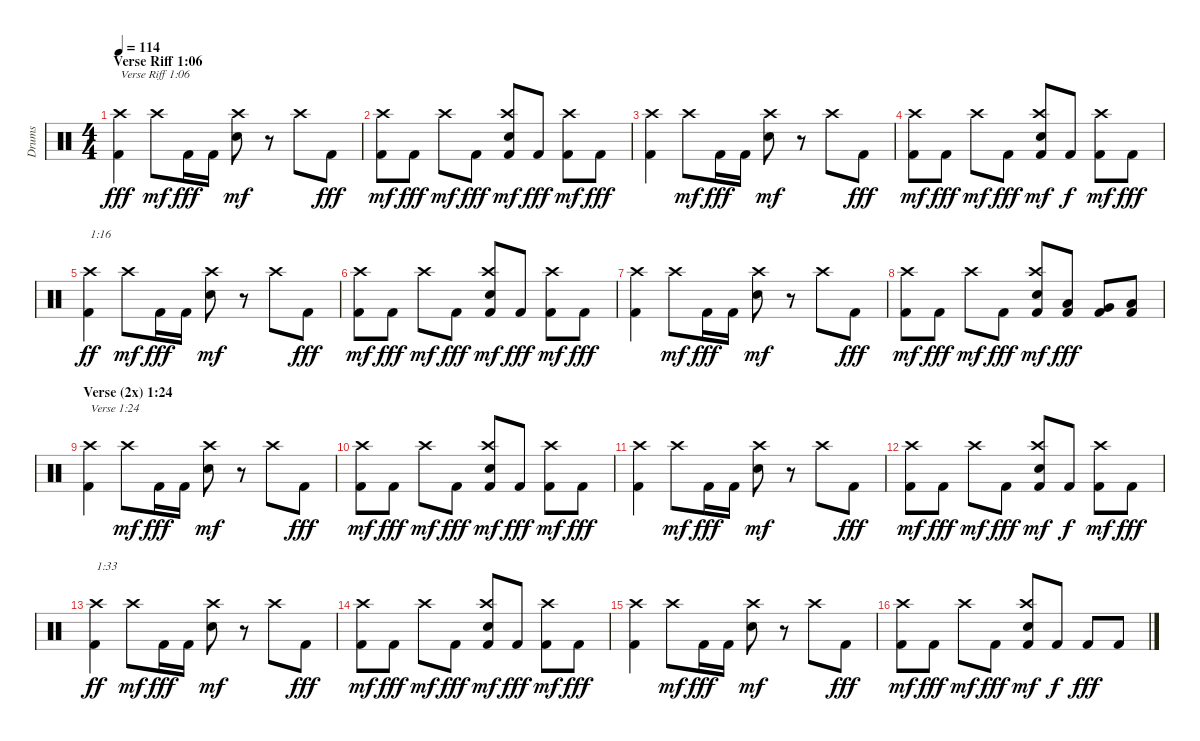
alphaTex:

\track ("Drums" "Drums") {instrument percussion}
\staff {score}
\articulation defaults
\ts (4 4)
\section ("" "Verse Riff 1:06 ")
\tempo 114
\clef neutral
\ks c
("Kick (hit) 2" "Crash high (hit)").4{txt "Verse Riff 1:06" dy fff} "Crash high (hit)".8{dy mf} "Kick (hit) 2".16{dy fff} "Kick (hit) 2".16 ("Electric Snare (hit)" "Crash high (hit)").8{dy mf} r.8 "Crash high (hit)".8 "Kick (hit) 2".8{dy fff} |
("Kick (hit) 2" "Crash high (hit)").8{dy mf} "Kick (hit) 2".8{dy fff} "Crash high (hit)".8{dy mf} "Kick (hit) 2".8{dy fff} ("Kick (hit) 2" "Electric Snare (hit)" "Crash high (hit)").8{dy mf} "Kick (hit) 2".8{dy fff} ("Kick (hit) 2" "Crash high (hit)").8{dy mf} "Kick (hit) 2".8{dy fff} |
("Kick (hit) 2" "Crash high (hit)").4 "Crash high (hit)".8{dy mf} "Kick (hit) 2".16{dy fff} "Kick (hit) 2".16 ("Electric Snare (hit)" "Crash high (hit)").8{dy mf} r.8 "Crash high (hit)".8 "Kick (hit) 2".8{dy fff} |
("Kick (hit) 2" "Crash high (hit)").8{dy mf} "Kick (hit) 2".8{dy fff} "Crash high (hit)".8{dy mf} "Kick (hit) 2".8{dy fff} ("Kick (hit) 2" "Electric Snare (hit)" "Crash high (hit)").8{dy mf} "Kick (hit) 2".8{dy f} ("Kick (hit) 2" "Crash high (hit)").8{dy mf} "Kick (hit) 2".8{dy fff} |
("Kick (hit) 2" "Crash high (hit)").4{txt "1:16" dy ff} "Crash high (hit)".8{dy mf} "Kick (hit) 2".16{dy fff} "Kick (hit) 2".16 ("Electric Snare (hit)" "Crash high (hit)").8{dy mf} r.8 "Crash high (hit)".8 "Kick (hit) 2".8{dy fff} |
("Kick (hit) 2" "Crash high (hit)").8{dy mf} "Kick (hit) 2".8{dy fff} "Crash high (hit)".8{dy mf} "Kick (hit) 2".8{dy fff} ("Kick (hit) 2" "Electric Snare (hit)" "Crash high (hit)").8{dy mf} "Kick (hit) 2".8{dy fff} ("Kick (hit) 2" "Crash high (hit)").8{dy mf} "Kick (hit) 2".8{dy fff} |
("Kick (hit) 2" "Crash high (hit)").4 "Crash high (hit)".8{dy mf} "Kick (hit) 2".16{dy fff} "Kick (hit) 2".16 ("Electric Snare (hit)" "Crash high (hit)").8{dy mf} r.8 "Crash high (hit)".8 "Kick (hit) 2".8{dy fff} |
("Kick (hit) 2" "Crash high (hit)").8{dy mf} "Kick (hit) 2".8{dy fff} "Crash high (hit)".8{dy mf} "Kick (hit) 2".8{dy fff} ("Kick (hit) 2" "Electric Snare (hit)" "Crash high (hit)").8{dy mf} ("Kick (hit) 2" "Low Tom (hit)").8{dy fff} ("Kick (hit) 2" "Very Low Tom (hit)").8 ("Kick (hit) 2" "Low Floor Tom (hit)").8 |
\section ("" "Verse (2x) 1:24")
("Kick (hit) 2" "Crash high (hit)").4{txt "Verse 1:24"} "Crash high (hit)".8{dy mf} "Kick (hit) 2".16{dy fff} "Kick (hit) 2".16 ("Electric Snare (hit)" "Crash high (hit)").8{dy mf} r.8 "Crash high (hit)".8 "Kick (hit) 2".8{dy fff} |
("Kick (hit) 2" "Crash high (hit)").8{dy mf} "Kick (hit) 2".8{dy fff} "Crash high (hit)".8{dy mf} "Kick (hit) 2".8{dy fff} ("Kick (hit) 2" "Electric Snare (hit)" "Crash high (hit)").8{dy mf} "Kick (hit) 2".8{dy fff} ("Kick (hit) 2" "Crash high (hit)").8{dy mf} "Kick (hit) 2".8{dy fff} |
("Kick (hit) 2" "Crash high (hit)").4 "Crash high (hit)".8{dy mf} "Kick (hit) 2".16{dy fff} "Kick (hit) 2".16 ("Electric Snare (hit)" "Crash high (hit)").8{dy mf} r.8 "Crash high (hit)".8 "Kick (hit) 2".8{dy fff} |
("Kick (hit) 2" "Crash high (hit)").8{dy mf} "Kick (hit) 2".8{dy fff} "Crash high (hit)".8{dy mf} "Kick (hit) 2".8{dy fff} ("Kick (hit) 2" "Electric Snare (hit)" "Crash high (hit)").8{dy mf} "Kick (hit) 2".8{dy f} ("Kick (hit) 2" "Crash high (hit)").8{dy mf} "Kick (hit) 2".8{dy fff} |
("Kick (hit) 2" "Crash high (hit)").4{txt "1:33" dy ff} "Crash high (hit)".8{dy mf} "Kick (hit) 2".16{dy fff} "Kick (hit) 2".16 ("Electric Snare (hit)" "Crash high (hit)").8{dy mf} r.8 "Crash high (hit)".8 "Kick (hit) 2".8{dy fff} |
("Kick (hit) 2" "Crash high (hit)").8{dy mf} "Kick (hit) 2".8{dy fff} "Crash high (hit)".8{dy mf} "Kick (hit) 2".8{dy fff} ("Kick (hit) 2" "Electric Snare (hit)" "Crash high (hit)").8{dy mf} "Kick (hit) 2".8{dy fff} ("Kick (hit) 2" "Crash high (hit)").8{dy mf} "Kick (hit) 2".8{dy fff} |
("Kick (hit) 2" "Crash high (hit)").4 "Crash high (hit)".8{dy mf} "Kick (hit) 2".16{dy fff} "Kick (hit) 2".16 ("Electric Snare (hit)" "Crash high (hit)").8{dy mf} r.8 "Crash high (hit)".8 "Kick (hit) 2".8{dy fff} |
("Kick (hit) 2" "Crash high (hit)").8{dy mf} "Kick (hit) 2".8{dy fff} "Crash high (hit)".8{dy mf} "Kick (hit) 2".8{dy fff} ("Kick (hit) 2" "Electric Snare (hit)" "Crash high (hit)").8{dy mf} "Kick (hit) 2".8{dy f} "Kick (hit) 2".8{dy fff} "Kick (hit) 2".8
